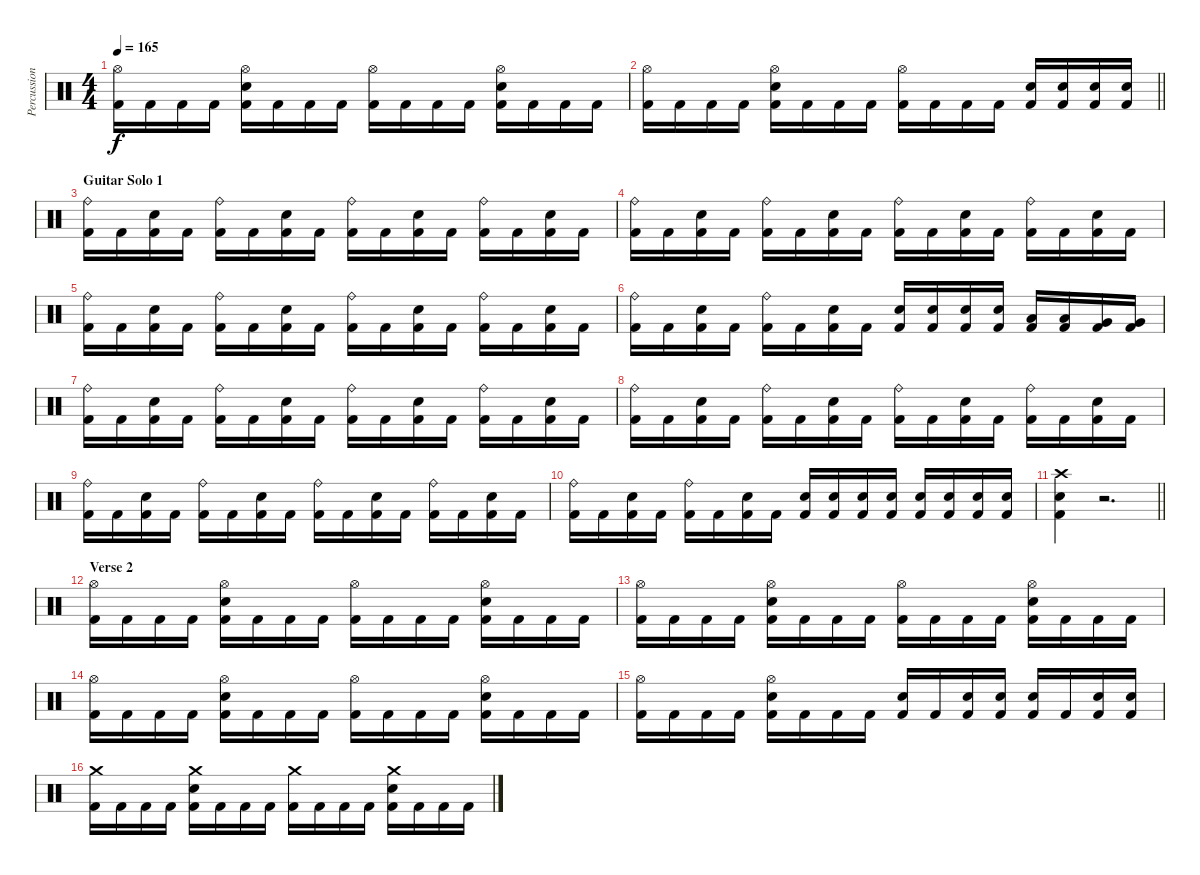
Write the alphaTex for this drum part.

\track ("Percussion" "Percussion") {instrument percussion}
\staff {score}
\articulation defaults
\ts (4 4)
\tempo 165
\clef neutral
\ks c
("Hi-Hat (open)" "Kick (hit) 2").16{dy f} "Kick (hit) 2".16 "Kick (hit) 2".16 "Kick (hit) 2".16 ("Hi-Hat (open)" "Snare (hit) 2" "Kick (hit) 2").16 "Kick (hit) 2".16 "Kick (hit) 2".16 "Kick (hit) 2".16 ("Hi-Hat (open)" "Kick (hit) 2").16 "Kick (hit) 2".16 "Kick (hit) 2".16 "Kick (hit) 2".16 ("Hi-Hat (open)" "Snare (hit) 2" "Kick (hit) 2").16 "Kick (hit) 2".16 "Kick (hit) 2".16 "Kick (hit) 2".16 |
\barLineRight lightlight
("Hi-Hat (open)" "Kick (hit) 2").16 "Kick (hit) 2".16 "Kick (hit) 2".16 "Kick (hit) 2".16 ("Hi-Hat (open)" "Snare (hit) 2" "Kick (hit) 2").16 "Kick (hit) 2".16 "Kick (hit) 2".16 "Kick (hit) 2".16 ("Hi-Hat (open)" "Kick (hit) 2").16 "Kick (hit) 2".16 "Kick (hit) 2".16 "Kick (hit) 2".16 ("Snare (hit) 2" "Kick (hit) 2").16 ("Snare (hit) 2" "Kick (hit) 2").16 ("Snare (hit) 2" "Kick (hit) 2").16 ("Snare (hit) 2" "Kick (hit) 2").16 |
\section ("" "Guitar Solo 1")
("Ride (bell)" "Kick (hit) 2").16 "Kick (hit) 2".16 ("Snare (hit) 2" "Kick (hit) 2").16 "Kick (hit) 2".16 ("Ride (bell)" "Kick (hit) 2").16 "Kick (hit) 2".16 ("Snare (hit) 2" "Kick (hit) 2").16 "Kick (hit) 2".16 ("Ride (bell)" "Kick (hit) 2").16 "Kick (hit) 2".16 ("Snare (hit) 2" "Kick (hit) 2").16 "Kick (hit) 2".16 ("Ride (bell)" "Kick (hit) 2").16 "Kick (hit) 2".16 ("Snare (hit) 2" "Kick (hit) 2").16 "Kick (hit) 2".16 |
("Ride (bell)" "Kick (hit) 2").16 "Kick (hit) 2".16 ("Snare (hit) 2" "Kick (hit) 2").16 "Kick (hit) 2".16 ("Ride (bell)" "Kick (hit) 2").16 "Kick (hit) 2".16 ("Snare (hit) 2" "Kick (hit) 2").16 "Kick (hit) 2".16 ("Ride (bell)" "Kick (hit) 2").16 "Kick (hit) 2".16 ("Snare (hit) 2" "Kick (hit) 2").16 "Kick (hit) 2".16 ("Ride (bell)" "Kick (hit) 2").16 "Kick (hit) 2".16 ("Snare (hit) 2" "Kick (hit) 2").16 "Kick (hit) 2".16 |
("Ride (bell)" "Kick (hit) 2").16 "Kick (hit) 2".16 ("Snare (hit) 2" "Kick (hit) 2").16 "Kick (hit) 2".16 ("Ride (bell)" "Kick (hit) 2").16 "Kick (hit) 2".16 ("Snare (hit) 2" "Kick (hit) 2").16 "Kick (hit) 2".16 ("Ride (bell)" "Kick (hit) 2").16 "Kick (hit) 2".16 ("Snare (hit) 2" "Kick (hit) 2").16 "Kick (hit) 2".16 ("Ride (bell)" "Kick (hit) 2").16 "Kick (hit) 2".16 ("Snare (hit) 2" "Kick (hit) 2").16 "Kick (hit) 2".16 |
("Ride (bell)" "Kick (hit) 2").16 "Kick (hit) 2".16 ("Snare (hit) 2" "Kick (hit) 2").16 "Kick (hit) 2".16 ("Ride (bell)" "Kick (hit) 2").16 "Kick (hit) 2".16 ("Snare (hit) 2" "Kick (hit) 2").16 "Kick (hit) 2".16 ("Snare (hit) 2" "Kick (hit) 2").16 ("Snare (hit) 2" "Kick (hit) 2").16 ("Snare (hit) 2" "Kick (hit) 2").16 ("Snare (hit) 2" "Kick (hit) 2").16 ("Low Tom (hit)" "Kick (hit) 2").16 ("Low Tom (hit)" "Kick (hit) 2").16 ("Very Low Tom (hit)" "Kick (hit) 2").16 ("Very Low Tom (hit)" "Kick (hit) 2").16 |
("Ride (bell)" "Kick (hit) 2").16 "Kick (hit) 2".16 ("Snare (hit) 2" "Kick (hit) 2").16 "Kick (hit) 2".16 ("Ride (bell)" "Kick (hit) 2").16 "Kick (hit) 2".16 ("Snare (hit) 2" "Kick (hit) 2").16 "Kick (hit) 2".16 ("Ride (bell)" "Kick (hit) 2").16 "Kick (hit) 2".16 ("Snare (hit) 2" "Kick (hit) 2").16 "Kick (hit) 2".16 ("Ride (bell)" "Kick (hit) 2").16 "Kick (hit) 2".16 ("Snare (hit) 2" "Kick (hit) 2").16 "Kick (hit) 2".16 |
("Ride (bell)" "Kick (hit) 2").16 "Kick (hit) 2".16 ("Snare (hit) 2" "Kick (hit) 2").16 "Kick (hit) 2".16 ("Ride (bell)" "Kick (hit) 2").16 "Kick (hit) 2".16 ("Snare (hit) 2" "Kick (hit) 2").16 "Kick (hit) 2".16 ("Ride (bell)" "Kick (hit) 2").16 "Kick (hit) 2".16 ("Snare (hit) 2" "Kick (hit) 2").16 "Kick (hit) 2".16 ("Ride (bell)" "Kick (hit) 2").16 "Kick (hit) 2".16 ("Snare (hit) 2" "Kick (hit) 2").16 "Kick (hit) 2".16 |
("Ride (bell)" "Kick (hit) 2").16 "Kick (hit) 2".16 ("Snare (hit) 2" "Kick (hit) 2").16 "Kick (hit) 2".16 ("Ride (bell)" "Kick (hit) 2").16 "Kick (hit) 2".16 ("Snare (hit) 2" "Kick (hit) 2").16 "Kick (hit) 2".16 ("Ride (bell)" "Kick (hit) 2").16 "Kick (hit) 2".16 ("Snare (hit) 2" "Kick (hit) 2").16 "Kick (hit) 2".16 ("Ride (bell)" "Kick (hit) 2").16 "Kick (hit) 2".16 ("Snare (hit) 2" "Kick (hit) 2").16 "Kick (hit) 2".16 |
("Ride (bell)" "Kick (hit) 2").16 "Kick (hit) 2".16 ("Snare (hit) 2" "Kick (hit) 2").16 "Kick (hit) 2".16 ("Ride (bell)" "Kick (hit) 2").16 "Kick (hit) 2".16 ("Snare (hit) 2" "Kick (hit) 2").16 "Kick (hit) 2".16 ("Snare (hit) 2" "Kick (hit) 2").16 ("Snare (hit) 2" "Kick (hit) 2").16 ("Snare (hit) 2" "Kick (hit) 2").16 ("Snare (hit) 2" "Kick (hit) 2").16 ("Snare (hit) 2" "Kick (hit) 2").16 ("Snare (hit) 2" "Kick (hit) 2").16 ("Snare (hit) 2" "Kick (hit) 2").16 ("Snare (hit) 2" "Kick (hit) 2").16 |
\barLineRight lightlight
("Crash high (hit)" "Snare (hit) 2" "Kick (hit) 2").4 r.2{d} |
\section ("" "Verse 2")
("Hi-Hat (open)" "Kick (hit) 2").16 "Kick (hit) 2".16 "Kick (hit) 2".16 "Kick (hit) 2".16 ("Hi-Hat (open)" "Snare (hit) 2" "Kick (hit) 2").16 "Kick (hit) 2".16 "Kick (hit) 2".16 "Kick (hit) 2".16 ("Hi-Hat (open)" "Kick (hit) 2").16 "Kick (hit) 2".16 "Kick (hit) 2".16 "Kick (hit) 2".16 ("Hi-Hat (open)" "Snare (hit) 2" "Kick (hit) 2").16 "Kick (hit) 2".16 "Kick (hit) 2".16 "Kick (hit) 2".16 |
("Hi-Hat (open)" "Kick (hit) 2").16 "Kick (hit) 2".16 "Kick (hit) 2".16 "Kick (hit) 2".16 ("Hi-Hat (open)" "Snare (hit) 2" "Kick (hit) 2").16 "Kick (hit) 2".16 "Kick (hit) 2".16 "Kick (hit) 2".16 ("Hi-Hat (open)" "Kick (hit) 2").16 "Kick (hit) 2".16 "Kick (hit) 2".16 "Kick (hit) 2".16 ("Hi-Hat (open)" "Snare (hit) 2" "Kick (hit) 2").16 "Kick (hit) 2".16 "Kick (hit) 2".16 "Kick (hit) 2".16 |
("Hi-Hat (open)" "Kick (hit) 2").16 "Kick (hit) 2".16 "Kick (hit) 2".16 "Kick (hit) 2".16 ("Hi-Hat (open)" "Snare (hit) 2" "Kick (hit) 2").16 "Kick (hit) 2".16 "Kick (hit) 2".16 "Kick (hit) 2".16 ("Hi-Hat (open)" "Kick (hit) 2").16 "Kick (hit) 2".16 "Kick (hit) 2".16 "Kick (hit) 2".16 ("Hi-Hat (open)" "Snare (hit) 2" "Kick (hit) 2").16 "Kick (hit) 2".16 "Kick (hit) 2".16 "Kick (hit) 2".16 |
("Hi-Hat (open)" "Kick (hit) 2").16 "Kick (hit) 2".16 "Kick (hit) 2".16 "Kick (hit) 2".16 ("Hi-Hat (open)" "Snare (hit) 2" "Kick (hit) 2").16 "Kick (hit) 2".16 "Kick (hit) 2".16 "Kick (hit) 2".16 ("Snare (hit) 2" "Kick (hit) 2").16 "Kick (hit) 2".16 ("Snare (hit) 2" "Kick (hit) 2").16 ("Snare (hit) 2" "Kick (hit) 2").16 ("Snare (hit) 2" "Kick (hit) 2").16 "Kick (hit) 2".16 ("Snare (hit) 2" "Kick (hit) 2").16 ("Snare (hit) 2" "Kick (hit) 2").16 |
("Crash medium (hit)" "Kick (hit) 2").16 "Kick (hit) 2".16 "Kick (hit) 2".16 "Kick (hit) 2".16 ("Crash medium (hit)" "Snare (hit) 2" "Kick (hit) 2").16 "Kick (hit) 2".16 "Kick (hit) 2".16 "Kick (hit) 2".16 ("Crash medium (hit)" "Kick (hit) 2").16 "Kick (hit) 2".16 "Kick (hit) 2".16 "Kick (hit) 2".16 ("Crash medium (hit)" "Snare (hit) 2" "Kick (hit) 2").16 "Kick (hit) 2".16 "Kick (hit) 2".16 "Kick (hit) 2".16
